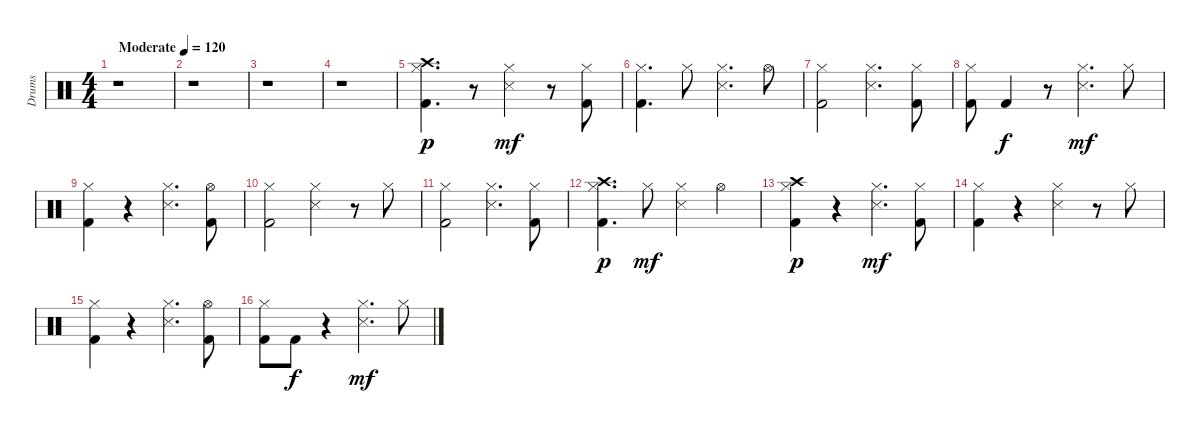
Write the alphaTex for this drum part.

\track ("Drums" "Drums") {instrument percussion}
\staff {score}
\articulation defaults
\ts (4 4)
\tempo (120 "Moderate")
\clef neutral
\ks c
r.1{dy p} |
r.1 |
r.1 |
r.1 |
("Kick (hit) 2" "Hi-Hat (closed)" "Crash high (hit)").4{d} r.8 ("Hi-Hat (closed)" "Snare (side stick) 3").4{dy mf} r.8 ("Kick (hit) 2" "Hi-Hat (closed)").8 |
("Kick (hit) 2" "Hi-Hat (closed)").4{d} "Hi-Hat (closed)".8 ("Hi-Hat (closed)" "Snare (side stick) 3").4{d} "Hi-Hat (open)".8 |
("Kick (hit) 2" "Hi-Hat (closed)").2 ("Hi-Hat (closed)" "Snare (side stick) 3").4{d} ("Kick (hit) 2" "Hi-Hat (closed)").8 |
("Kick (hit) 2" "Hi-Hat (closed)").8 "Kick (hit) 2".4{dy f} r.8 ("Hi-Hat (closed)" "Snare (side stick) 3").4{d dy mf} "Hi-Hat (closed)".8 |
("Kick (hit) 2" "Hi-Hat (closed)").4 r.4 ("Hi-Hat (closed)" "Snare (side stick) 3").4{d} ("Kick (hit) 2" "Hi-Hat (open)").8 |
("Kick (hit) 2" "Hi-Hat (closed)").2 ("Hi-Hat (closed)" "Snare (side stick) 3").4 r.8 "Hi-Hat (closed)".8 |
("Kick (hit) 2" "Hi-Hat (closed)").2 ("Hi-Hat (closed)" "Snare (side stick) 3").4{d} ("Kick (hit) 2" "Hi-Hat (closed)").8 |
("Kick (hit) 2" "Hi-Hat (closed)" "Crash high (hit)").4{d dy p} "Hi-Hat (closed)".8{dy mf} ("Hi-Hat (closed)" "Snare (side stick) 3").4 "Hi-Hat (open)".4 |
("Kick (hit) 2" "Hi-Hat (closed)" "Crash high (hit)").4{dy p} r.4 ("Hi-Hat (closed)" "Snare (side stick) 3").4{d dy mf} ("Kick (hit) 2" "Hi-Hat (closed)").8 |
("Kick (hit) 2" "Hi-Hat (closed)").4 r.4 ("Hi-Hat (closed)" "Snare (side stick) 3").4 r.8 "Hi-Hat (closed)".8 |
("Kick (hit) 2" "Hi-Hat (closed)").4 r.4 ("Hi-Hat (closed)" "Snare (side stick) 3").4{d} ("Kick (hit) 2" "Hi-Hat (open)").8 |
("Kick (hit) 2" "Hi-Hat (closed)").8 "Kick (hit) 2".8{dy f} r.4 ("Hi-Hat (closed)" "Snare (side stick) 3").4{d dy mf} "Hi-Hat (closed)".8
